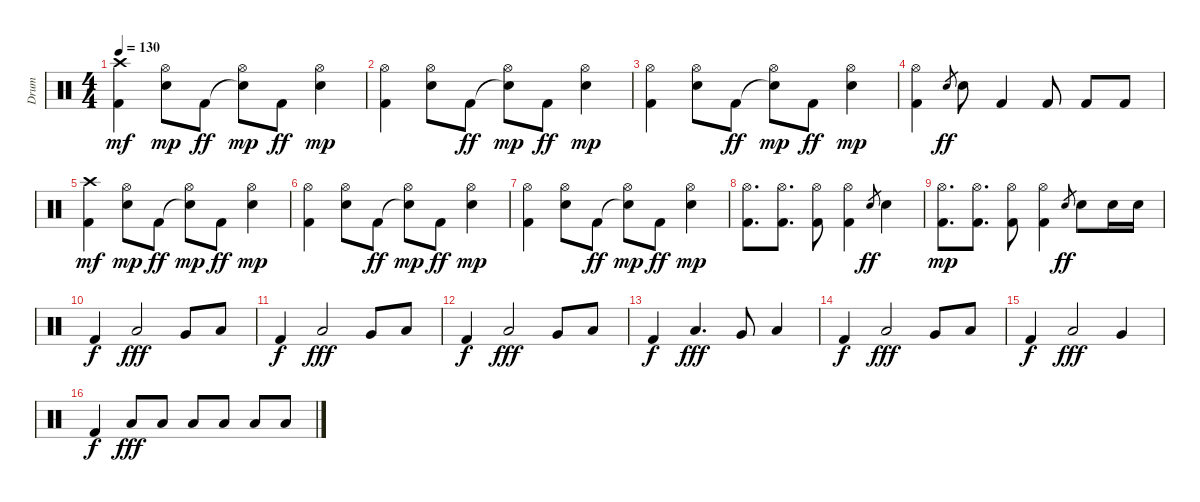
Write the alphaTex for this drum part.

\track ("Drum" "Drum") {instrument percussion}
\staff {score}
\articulation defaults
\ts (4 4)
\tempo 130
\clef neutral
\ks c
("Kick (hit) 2" "Crash high (hit)").4{dy mf} ("Electric Snare (hit)" "Hi-Hat (open)").8{dy mp} "Kick (hit) 2".8{dy ff} ("Snare (hit)"{t} "Hi-Hat (open)").8{dy mp} "Kick (hit) 2".8{dy ff} ("Electric Snare (hit)" "Hi-Hat (open)").4{dy mp} |
("Kick (hit) 2" "Hi-Hat (open)").4 ("Electric Snare (hit)" "Hi-Hat (open)").8 "Kick (hit) 2".8{dy ff} ("Snare (hit)"{t} "Hi-Hat (open)").8{dy mp} "Kick (hit) 2".8{dy ff} ("Electric Snare (hit)" "Hi-Hat (open)").4{dy mp} |
("Kick (hit) 2" "Hi-Hat (open)").4 ("Electric Snare (hit)" "Hi-Hat (open)").8 "Kick (hit) 2".8{dy ff} ("Snare (hit)"{t} "Hi-Hat (open)").8{dy mp} "Kick (hit) 2".8{dy ff} ("Electric Snare (hit)" "Hi-Hat (open)").4{dy mp} |
("Kick (hit) 2" "Hi-Hat (open)").4 "Electric Snare (hit)".8{gr dy ff} "Electric Snare (hit)".8 "Kick (hit) 2".4 "Kick (hit) 2".8 "Kick (hit) 2".8 "Kick (hit) 2".8 |
("Kick (hit) 2" "Crash high (hit)").4{dy mf} ("Electric Snare (hit)" "Hi-Hat (open)").8{dy mp} "Kick (hit) 2".8{dy ff} ("Snare (hit)"{t} "Hi-Hat (open)").8{dy mp} "Kick (hit) 2".8{dy ff} ("Electric Snare (hit)" "Hi-Hat (open)").4{dy mp} |
("Kick (hit) 2" "Hi-Hat (open)").4 ("Electric Snare (hit)" "Hi-Hat (open)").8 "Kick (hit) 2".8{dy ff} ("Snare (hit)"{t} "Hi-Hat (open)").8{dy mp} "Kick (hit) 2".8{dy ff} ("Electric Snare (hit)" "Hi-Hat (open)").4{dy mp} |
("Kick (hit) 2" "Hi-Hat (open)").4 ("Electric Snare (hit)" "Hi-Hat (open)").8 "Kick (hit) 2".8{dy ff} ("Snare (hit)"{t} "Hi-Hat (open)").8{dy mp} "Kick (hit) 2".8{dy ff} ("Electric Snare (hit)" "Hi-Hat (open)").4{dy mp} |
("Kick (hit) 2" "Hi-Hat (open)").8{d} ("Kick (hit) 2" "Hi-Hat (open)").8{d} ("Kick (hit) 2" "Hi-Hat (open)").8 ("Kick (hit) 2" "Hi-Hat (open)").4 "Electric Snare (hit)".8{gr dy ff} "Electric Snare (hit)".4 |
("Kick (hit) 2" "Hi-Hat (open)").8{d dy mp} ("Kick (hit) 2" "Hi-Hat (open)").8{d} ("Kick (hit) 2" "Hi-Hat (open)").8 ("Kick (hit) 2" "Hi-Hat (open)").4 "Electric Snare (hit)".8{gr dy ff} "Electric Snare (hit)".8 "Electric Snare (hit)".16 "Electric Snare (hit)".16 |
"Kick (hit) 2".4{dy f} "Low Tom (hit)".2{dy fff} "Very Low Tom (hit)".8 "Low Floor Tom (hit)".8 |
"Kick (hit) 2".4{dy f} "Low Tom (hit)".2{dy fff} "Very Low Tom (hit)".8 "Low Floor Tom (hit)".8 |
"Kick (hit) 2".4{dy f} "Low Tom (hit)".2{dy fff} "Very Low Tom (hit)".8 "Low Floor Tom (hit)".8 |
"Kick (hit) 2".4{dy f} "Low Tom (hit)".4{d dy fff} "Very Low Tom (hit)".8 "Low Tom (hit)".4 |
"Kick (hit) 2".4{dy f} "Low Tom (hit)".2{dy fff} "Very Low Tom (hit)".8 "Low Floor Tom (hit)".8 |
"Kick (hit) 2".4{dy f} "Low Tom (hit)".2{dy fff} "Very Low Tom (hit)".4 |
"Kick (hit) 2".4{dy f} "Low Tom (hit)".8{dy fff} "Low Tom (hit)".8 "Low Tom (hit)".8 "Low Tom (hit)".8 "Low Tom (hit)".8 "Low Tom (hit)".8
